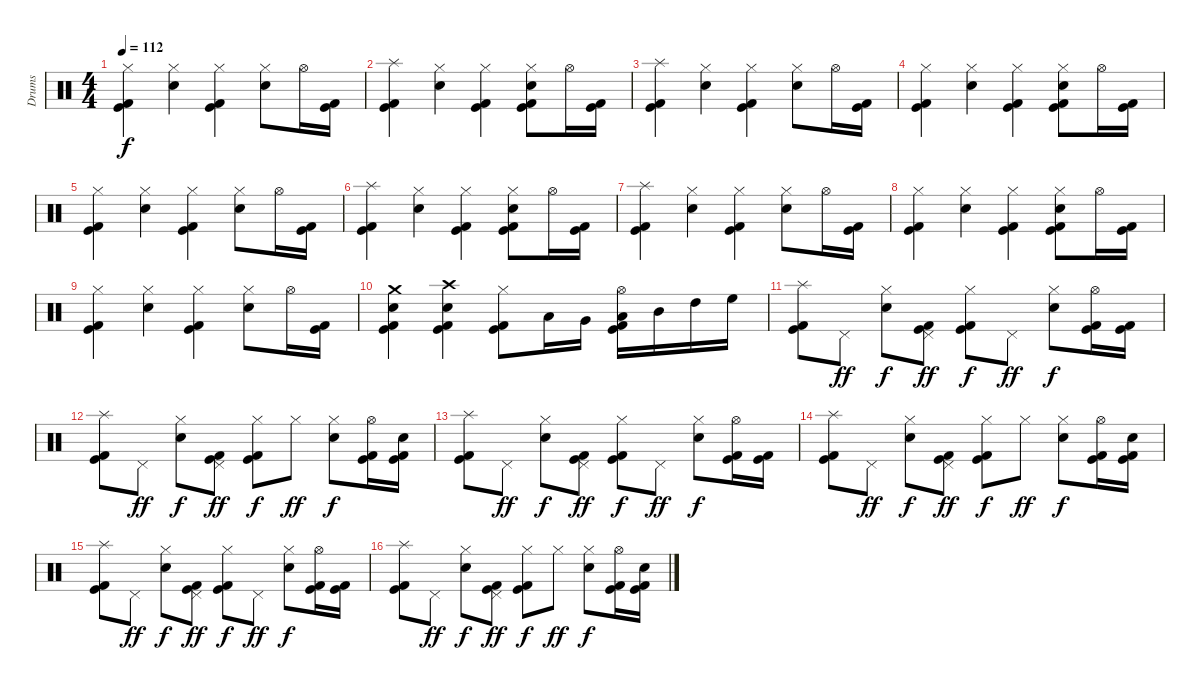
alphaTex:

\track ("Drums" "Drums") {instrument percussion}
\staff {score}
\articulation defaults
\ts (4 4)
\tempo 112
\clef neutral
\ks c
("Hi-Hat (closed)" "Kick (hit) 2" "Kick (hit)").4{dy f} ("Hi-Hat (closed)" "Electric Snare (hit)").4 ("Hi-Hat (closed)" "Kick (hit) 2" "Kick (hit)").4 ("Hi-Hat (closed)" "Electric Snare (hit)").8 "Hi-Hat (open)".16 ("Kick (hit) 2" "Kick (hit)").16 |
("Splash (hit)" "Kick (hit) 2" "Kick (hit)").4 ("Hi-Hat (closed)" "Electric Snare (hit)").4 ("Hi-Hat (closed)" "Kick (hit) 2" "Kick (hit)").4 ("Hi-Hat (closed)" "Electric Snare (hit)" "Kick (hit) 2" "Kick (hit)").8 "Hi-Hat (open)".16 ("Kick (hit) 2" "Kick (hit)").16 |
("Splash (hit)" "Kick (hit) 2" "Kick (hit)").4 ("Hi-Hat (closed)" "Electric Snare (hit)").4 ("Hi-Hat (closed)" "Kick (hit) 2" "Kick (hit)").4 ("Hi-Hat (closed)" "Electric Snare (hit)").8 "Hi-Hat (open)".16 ("Kick (hit) 2" "Kick (hit)").16 |
("Hi-Hat (closed)" "Kick (hit) 2" "Kick (hit)").4 ("Hi-Hat (closed)" "Electric Snare (hit)").4 ("Hi-Hat (closed)" "Kick (hit) 2" "Kick (hit)").4 ("Hi-Hat (closed)" "Electric Snare (hit)" "Kick (hit) 2" "Kick (hit)").8 "Hi-Hat (open)".16 ("Kick (hit) 2" "Kick (hit)").16 |
("Hi-Hat (closed)" "Kick (hit) 2" "Kick (hit)").4 ("Hi-Hat (closed)" "Electric Snare (hit)").4 ("Hi-Hat (closed)" "Kick (hit) 2" "Kick (hit)").4 ("Hi-Hat (closed)" "Electric Snare (hit)").8 "Hi-Hat (open)".16 ("Kick (hit) 2" "Kick (hit)").16 |
("Splash (hit)" "Kick (hit) 2" "Kick (hit)").4 ("Hi-Hat (closed)" "Electric Snare (hit)").4 ("Hi-Hat (closed)" "Kick (hit) 2" "Kick (hit)").4 ("Hi-Hat (closed)" "Electric Snare (hit)" "Kick (hit) 2" "Kick (hit)").8 "Hi-Hat (open)".16 ("Kick (hit) 2" "Kick (hit)").16 |
("Splash (hit)" "Kick (hit) 2" "Kick (hit)").4 ("Hi-Hat (closed)" "Electric Snare (hit)").4 ("Hi-Hat (closed)" "Kick (hit) 2" "Kick (hit)").4 ("Hi-Hat (closed)" "Electric Snare (hit)").8 "Hi-Hat (open)".16 ("Kick (hit) 2" "Kick (hit)").16 |
("Hi-Hat (closed)" "Kick (hit) 2" "Kick (hit)").4 ("Hi-Hat (closed)" "Electric Snare (hit)").4 ("Hi-Hat (closed)" "Kick (hit) 2" "Kick (hit)").4 ("Hi-Hat (closed)" "Electric Snare (hit)" "Kick (hit) 2" "Kick (hit)").8 "Hi-Hat (open)".16 ("Kick (hit) 2" "Kick (hit)").16 |
("Hi-Hat (closed)" "Kick (hit) 2" "Kick (hit)").4 ("Hi-Hat (closed)" "Electric Snare (hit)").4 ("Hi-Hat (closed)" "Kick (hit) 2" "Kick (hit)").4 ("Hi-Hat (closed)" "Electric Snare (hit)").8 "Hi-Hat (open)".16 ("Kick (hit) 2" "Kick (hit)").16 |
("Crash medium (hit)" "Electric Snare (hit)" "Kick (hit) 2" "Kick (hit)").4 ("Crash high (hit)" "Electric Snare (hit)" "Kick (hit) 2" "Kick (hit)").4 ("Hi-Hat (closed)" "Kick (hit) 2" "Kick (hit)").8 "Low Tom (hit)".16 "Very Low Tom (hit)".16 ("Hi-Hat (open)" "Low Floor Tom (hit)" "Kick (hit) 2" "Kick (hit)").16 "Mid Tom (hit)".16 "High Tom (hit)".16 "High Floor Tom (hit)".16 |
("Splash (hit)" "Kick (hit) 2" "Kick (hit)").8 "Pedal Hi-Hat (hit)".8{dy ff} ("Hi-Hat (closed)" "Electric Snare (hit)").8{dy f} ("Pedal Hi-Hat (hit)" "Kick (hit)" "Kick (hit) 2").8{dy ff} ("Hi-Hat (closed)" "Kick (hit)" "Kick (hit) 2").8{dy f} "Pedal Hi-Hat (hit)".8{dy ff} ("Hi-Hat (closed)" "Electric Snare (hit)").8{dy f} ("Hi-Hat (open)" "Kick (hit) 2" "Kick (hit)").16 ("Kick (hit) 2" "Kick (hit)").16 |
("Splash (hit)" "Kick (hit) 2" "Kick (hit)").8 "Pedal Hi-Hat (hit)".8{dy ff} ("Hi-Hat (closed)" "Electric Snare (hit)").8{dy f} ("Pedal Hi-Hat (hit)" "Kick (hit)" "Kick (hit) 2").8{dy ff} ("Hi-Hat (closed)" "Kick (hit)" "Kick (hit) 2").8{dy f} "Hi-Hat (closed)".8{dy ff} ("Hi-Hat (closed)" "Electric Snare (hit)").8{dy f} ("Hi-Hat (open)" "Kick (hit) 2" "Kick (hit)").16 ("Electric Snare (hit)" "Kick (hit) 2" "Kick (hit)").16 |
("Splash (hit)" "Kick (hit) 2" "Kick (hit)").8 "Pedal Hi-Hat (hit)".8{dy ff} ("Hi-Hat (closed)" "Electric Snare (hit)").8{dy f} ("Pedal Hi-Hat (hit)" "Kick (hit)" "Kick (hit) 2").8{dy ff} ("Hi-Hat (closed)" "Kick (hit)" "Kick (hit) 2").8{dy f} "Pedal Hi-Hat (hit)".8{dy ff} ("Hi-Hat (closed)" "Electric Snare (hit)").8{dy f} ("Hi-Hat (open)" "Kick (hit) 2" "Kick (hit)").16 ("Kick (hit) 2" "Kick (hit)").16 |
("Splash (hit)" "Kick (hit) 2" "Kick (hit)").8 "Pedal Hi-Hat (hit)".8{dy ff} ("Hi-Hat (closed)" "Electric Snare (hit)").8{dy f} ("Pedal Hi-Hat (hit)" "Kick (hit)" "Kick (hit) 2").8{dy ff} ("Hi-Hat (closed)" "Kick (hit)" "Kick (hit) 2").8{dy f} "Hi-Hat (closed)".8{dy ff} ("Hi-Hat (closed)" "Electric Snare (hit)").8{dy f} ("Hi-Hat (open)" "Kick (hit) 2" "Kick (hit)").16 ("Electric Snare (hit)" "Kick (hit) 2" "Kick (hit)").16 |
("Splash (hit)" "Kick (hit) 2" "Kick (hit)").8 "Pedal Hi-Hat (hit)".8{dy ff} ("Hi-Hat (closed)" "Electric Snare (hit)").8{dy f} ("Pedal Hi-Hat (hit)" "Kick (hit)" "Kick (hit) 2").8{dy ff} ("Hi-Hat (closed)" "Kick (hit)" "Kick (hit) 2").8{dy f} "Pedal Hi-Hat (hit)".8{dy ff} ("Hi-Hat (closed)" "Electric Snare (hit)").8{dy f} ("Hi-Hat (open)" "Kick (hit) 2" "Kick (hit)").16 ("Kick (hit) 2" "Kick (hit)").16 |
("Splash (hit)" "Kick (hit) 2" "Kick (hit)").8 "Pedal Hi-Hat (hit)".8{dy ff} ("Hi-Hat (closed)" "Electric Snare (hit)").8{dy f} ("Pedal Hi-Hat (hit)" "Kick (hit)" "Kick (hit) 2").8{dy ff} ("Hi-Hat (closed)" "Kick (hit)" "Kick (hit) 2").8{dy f} "Hi-Hat (closed)".8{dy ff} ("Hi-Hat (closed)" "Electric Snare (hit)").8{dy f} ("Hi-Hat (open)" "Kick (hit) 2" "Kick (hit)").16 ("Electric Snare (hit)" "Kick (hit) 2" "Kick (hit)").16
